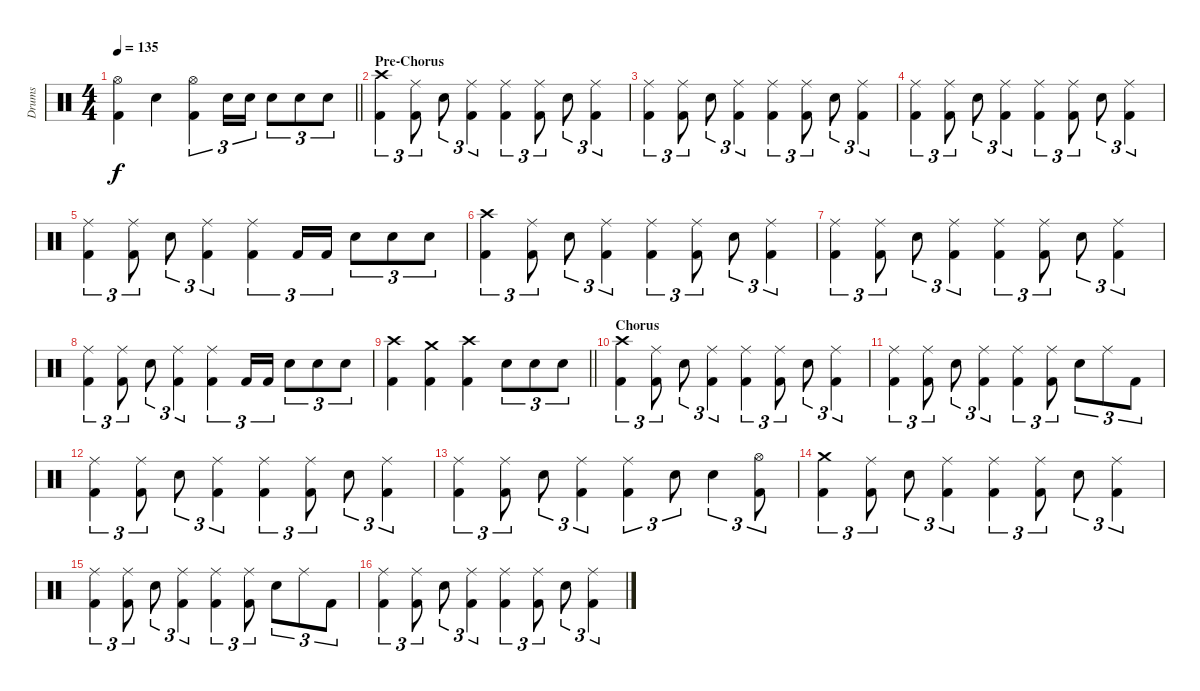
\track ("Drums" "Drums") {instrument percussion}
\staff {score}
\articulation defaults
\ts (4 4)
\tempo 135
\clef neutral
\barLineRight lightlight
\ks c
("Hi-Hat (open)" "Kick (hit) 2").4{dy f} "Snare (hit) 2".4 ("Hi-Hat (open)" "Kick (hit) 2").4{tu (3 2)} "Snare (hit) 2".16{tu (3 2)} "Snare (hit) 2".16{tu (3 2)} "Snare (hit) 2".8{tu (3 2)} "Snare (hit) 2".8{tu (3 2)} "Snare (hit) 2".8{tu (3 2)} |
\section ("" "Pre-Chorus")
("Crash high (hit)" "Kick (hit) 2").4{tu (3 2)} ("Ride (middle)" "Kick (hit) 2").8{tu (3 2)} "Snare (hit) 2".8{tu (3 2)} ("Ride (middle)" "Kick (hit) 2").4{tu (3 2)} ("Ride (middle)" "Kick (hit) 2").4{tu (3 2)} ("Ride (middle)" "Kick (hit) 2").8{tu (3 2)} "Snare (hit) 2".8{tu (3 2)} ("Ride (middle)" "Kick (hit) 2").4{tu (3 2)} |
("Ride (middle)" "Kick (hit) 2").4{tu (3 2)} ("Ride (middle)" "Kick (hit) 2").8{tu (3 2)} "Snare (hit) 2".8{tu (3 2)} ("Ride (middle)" "Kick (hit) 2").4{tu (3 2)} ("Ride (middle)" "Kick (hit) 2").4{tu (3 2)} ("Ride (middle)" "Kick (hit) 2").8{tu (3 2)} "Snare (hit) 2".8{tu (3 2)} ("Ride (middle)" "Kick (hit) 2").4{tu (3 2)} |
("Ride (middle)" "Kick (hit) 2").4{tu (3 2)} ("Ride (middle)" "Kick (hit) 2").8{tu (3 2)} "Snare (hit) 2".8{tu (3 2)} ("Ride (middle)" "Kick (hit) 2").4{tu (3 2)} ("Ride (middle)" "Kick (hit) 2").4{tu (3 2)} ("Ride (middle)" "Kick (hit) 2").8{tu (3 2)} "Snare (hit) 2".8{tu (3 2)} ("Ride (middle)" "Kick (hit) 2").4{tu (3 2)} |
("Ride (middle)" "Kick (hit) 2").4{tu (3 2)} ("Ride (middle)" "Kick (hit) 2").8{tu (3 2)} "Snare (hit) 2".8{tu (3 2)} ("Ride (middle)" "Kick (hit) 2").4{tu (3 2)} ("Ride (middle)" "Kick (hit) 2").4{tu (3 2)} "Kick (hit) 2".16{tu (3 2)} "Kick (hit) 2".16{tu (3 2)} "Snare (hit) 2".8{tu (3 2)} "Snare (hit) 2".8{tu (3 2)} "Snare (hit) 2".8{tu (3 2)} |
("Crash high (hit)" "Kick (hit) 2").4{tu (3 2)} ("Ride (middle)" "Kick (hit) 2").8{tu (3 2)} "Snare (hit) 2".8{tu (3 2)} ("Ride (middle)" "Kick (hit) 2").4{tu (3 2)} ("Ride (middle)" "Kick (hit) 2").4{tu (3 2)} ("Ride (middle)" "Kick (hit) 2").8{tu (3 2)} "Snare (hit) 2".8{tu (3 2)} ("Ride (middle)" "Kick (hit) 2").4{tu (3 2)} |
("Ride (middle)" "Kick (hit) 2").4{tu (3 2)} ("Ride (middle)" "Kick (hit) 2").8{tu (3 2)} "Snare (hit) 2".8{tu (3 2)} ("Ride (middle)" "Kick (hit) 2").4{tu (3 2)} ("Ride (middle)" "Kick (hit) 2").4{tu (3 2)} ("Ride (middle)" "Kick (hit) 2").8{tu (3 2)} "Snare (hit) 2".8{tu (3 2)} ("Ride (middle)" "Kick (hit) 2").4{tu (3 2)} |
("Ride (middle)" "Kick (hit) 2").4{tu (3 2)} ("Ride (middle)" "Kick (hit) 2").8{tu (3 2)} "Snare (hit) 2".8{tu (3 2)} ("Ride (middle)" "Kick (hit) 2").4{tu (3 2)} ("Ride (middle)" "Kick (hit) 2").4{tu (3 2)} "Kick (hit) 2".16{tu (3 2)} "Kick (hit) 2".16{tu (3 2)} "Snare (hit) 2".8{tu (3 2)} "Snare (hit) 2".8{tu (3 2)} "Snare (hit) 2".8{tu (3 2)} |
\barLineRight lightlight
("Crash high (hit)" "Kick (hit) 2").4 ("Crash medium (hit)" "Kick (hit) 2").4 ("Crash high (hit)" "Kick (hit) 2").4 "Snare (hit) 2".8{tu (3 2)} "Snare (hit) 2".8{tu (3 2)} "Snare (hit) 2".8{tu (3 2)} |
\section ("" "Chorus")
("Crash high (hit)" "Kick (hit) 2").4{tu (3 2)} ("Ride (middle)" "Kick (hit) 2").8{tu (3 2)} "Snare (hit) 2".8{tu (3 2)} ("Ride (middle)" "Kick (hit) 2").4{tu (3 2)} ("Ride (middle)" "Kick (hit) 2").4{tu (3 2)} ("Ride (middle)" "Kick (hit) 2").8{tu (3 2)} "Snare (hit) 2".8{tu (3 2)} ("Ride (middle)" "Kick (hit) 2").4{tu (3 2)} |
("Ride (middle)" "Kick (hit) 2").4{tu (3 2)} ("Ride (middle)" "Kick (hit) 2").8{tu (3 2)} "Snare (hit) 2".8{tu (3 2)} ("Ride (middle)" "Kick (hit) 2").4{tu (3 2)} ("Ride (middle)" "Kick (hit) 2").4{tu (3 2)} ("Ride (middle)" "Kick (hit) 2").8{tu (3 2)} "Snare (hit) 2".8{tu (3 2)} "Ride (middle)".8{tu (3 2)} "Kick (hit) 2".8{tu (3 2)} |
("Ride (middle)" "Kick (hit) 2").4{tu (3 2)} ("Ride (middle)" "Kick (hit) 2").8{tu (3 2)} "Snare (hit) 2".8{tu (3 2)} ("Ride (middle)" "Kick (hit) 2").4{tu (3 2)} ("Ride (middle)" "Kick (hit) 2").4{tu (3 2)} ("Ride (middle)" "Kick (hit) 2").8{tu (3 2)} "Snare (hit) 2".8{tu (3 2)} ("Ride (middle)" "Kick (hit) 2").4{tu (3 2)} |
("Ride (middle)" "Kick (hit) 2").4{tu (3 2)} ("Ride (middle)" "Kick (hit) 2").8{tu (3 2)} "Snare (hit) 2".8{tu (3 2)} ("Ride (middle)" "Kick (hit) 2").4{tu (3 2)} ("Ride (middle)" "Kick (hit) 2").4{tu (3 2)} "Snare (hit) 2".8{tu (3 2)} "Snare (hit) 2".4{tu (3 2)} ("Hi-Hat (open)" "Kick (hit) 2").8{tu (3 2)} |
("Crash medium (hit)" "Kick (hit) 2").4{tu (3 2)} ("Ride (middle)" "Kick (hit) 2").8{tu (3 2)} "Snare (hit) 2".8{tu (3 2)} ("Ride (middle)" "Kick (hit) 2").4{tu (3 2)} ("Ride (middle)" "Kick (hit) 2").4{tu (3 2)} ("Ride (middle)" "Kick (hit) 2").8{tu (3 2)} "Snare (hit) 2".8{tu (3 2)} ("Ride (middle)" "Kick (hit) 2").4{tu (3 2)} |
("Ride (middle)" "Kick (hit) 2").4{tu (3 2)} ("Ride (middle)" "Kick (hit) 2").8{tu (3 2)} "Snare (hit) 2".8{tu (3 2)} ("Ride (middle)" "Kick (hit) 2").4{tu (3 2)} ("Ride (middle)" "Kick (hit) 2").4{tu (3 2)} ("Ride (middle)" "Kick (hit) 2").8{tu (3 2)} "Snare (hit) 2".8{tu (3 2)} "Ride (middle)".8{tu (3 2)} "Kick (hit) 2".8{tu (3 2)} |
("Ride (middle)" "Kick (hit) 2").4{tu (3 2)} ("Ride (middle)" "Kick (hit) 2").8{tu (3 2)} "Snare (hit) 2".8{tu (3 2)} ("Ride (middle)" "Kick (hit) 2").4{tu (3 2)} ("Ride (middle)" "Kick (hit) 2").4{tu (3 2)} ("Ride (middle)" "Kick (hit) 2").8{tu (3 2)} "Snare (hit) 2".8{tu (3 2)} ("Ride (middle)" "Kick (hit) 2").4{tu (3 2)}
